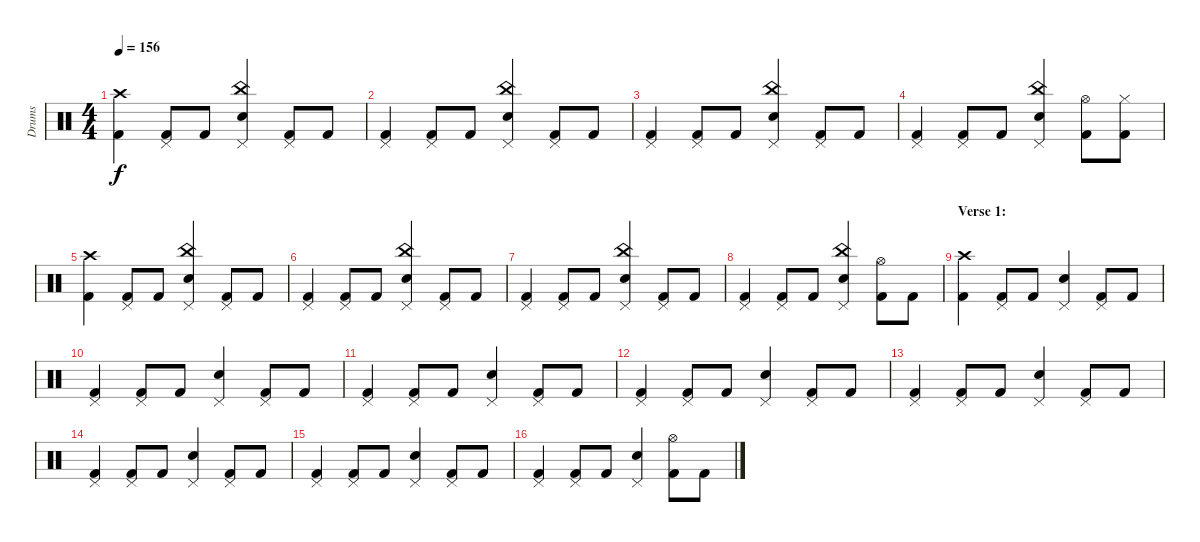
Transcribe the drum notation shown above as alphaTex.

\track ("Drums" "Drums") {instrument percussion}
\staff {score}
\articulation defaults
\ts (4 4)
\tempo 156
\clef neutral
\ks c
("Crash high (hit)" "Kick (hit) 2").4{dy f} ("Pedal Hi-Hat (hit)" "Kick (hit) 2").8 "Kick (hit) 2".8 ("Pedal Hi-Hat (hit)" "China (hit)" "Electric Snare (hit)").4 ("Pedal Hi-Hat (hit)" "Kick (hit) 2").8 "Kick (hit) 2".8 |
("Pedal Hi-Hat (hit)" "Kick (hit) 2").4 ("Pedal Hi-Hat (hit)" "Kick (hit) 2").8 "Kick (hit) 2".8 ("Pedal Hi-Hat (hit)" "China (hit)" "Electric Snare (hit)").4 ("Pedal Hi-Hat (hit)" "Kick (hit) 2").8 "Kick (hit) 2".8 |
("Pedal Hi-Hat (hit)" "Kick (hit) 2").4 ("Pedal Hi-Hat (hit)" "Kick (hit) 2").8 "Kick (hit) 2".8 ("Pedal Hi-Hat (hit)" "China (hit)" "Electric Snare (hit)").4 ("Pedal Hi-Hat (hit)" "Kick (hit) 2").8 "Kick (hit) 2".8 |
("Pedal Hi-Hat (hit)" "Kick (hit) 2").4 ("Pedal Hi-Hat (hit)" "Kick (hit) 2").8 "Kick (hit) 2".8 ("Pedal Hi-Hat (hit)" "China (hit)" "Electric Snare (hit)").4 ("Hi-Hat (open)" "Kick (hit) 2").8 ("Hi-Hat (closed)" "Kick (hit) 2").8 |
("Crash high (hit)" "Kick (hit) 2").4 ("Pedal Hi-Hat (hit)" "Kick (hit) 2").8 "Kick (hit) 2".8 ("Pedal Hi-Hat (hit)" "China (hit)" "Electric Snare (hit)").4 ("Pedal Hi-Hat (hit)" "Kick (hit) 2").8 "Kick (hit) 2".8 |
("Pedal Hi-Hat (hit)" "Kick (hit) 2").4 ("Pedal Hi-Hat (hit)" "Kick (hit) 2").8 "Kick (hit) 2".8 ("Pedal Hi-Hat (hit)" "China (hit)" "Electric Snare (hit)").4 ("Pedal Hi-Hat (hit)" "Kick (hit) 2").8 "Kick (hit) 2".8 |
("Pedal Hi-Hat (hit)" "Kick (hit) 2").4 ("Pedal Hi-Hat (hit)" "Kick (hit) 2").8 "Kick (hit) 2".8 ("Pedal Hi-Hat (hit)" "China (hit)" "Electric Snare (hit)").4 ("Pedal Hi-Hat (hit)" "Kick (hit) 2").8 "Kick (hit) 2".8 |
("Pedal Hi-Hat (hit)" "Kick (hit) 2").4 ("Pedal Hi-Hat (hit)" "Kick (hit) 2").8 "Kick (hit) 2".8 ("Pedal Hi-Hat (hit)" "China (hit)" "Electric Snare (hit)").4 ("Hi-Hat (open)" "Kick (hit) 2").8 "Kick (hit) 2".8 |
\section ("" "Verse 1:")
("Crash high (hit)" "Kick (hit) 2").4 ("Pedal Hi-Hat (hit)" "Kick (hit) 2").8 "Kick (hit) 2".8 ("Pedal Hi-Hat (hit)" "Electric Snare (hit)").4 ("Pedal Hi-Hat (hit)" "Kick (hit) 2").8 "Kick (hit) 2".8 |
("Pedal Hi-Hat (hit)" "Kick (hit) 2").4 ("Pedal Hi-Hat (hit)" "Kick (hit) 2").8 "Kick (hit) 2".8 ("Pedal Hi-Hat (hit)" "Electric Snare (hit)").4 ("Pedal Hi-Hat (hit)" "Kick (hit) 2").8 "Kick (hit) 2".8 |
("Pedal Hi-Hat (hit)" "Kick (hit) 2").4 ("Pedal Hi-Hat (hit)" "Kick (hit) 2").8 "Kick (hit) 2".8 ("Pedal Hi-Hat (hit)" "Electric Snare (hit)").4 ("Pedal Hi-Hat (hit)" "Kick (hit) 2").8 "Kick (hit) 2".8 |
("Pedal Hi-Hat (hit)" "Kick (hit) 2").4 ("Pedal Hi-Hat (hit)" "Kick (hit) 2").8 "Kick (hit) 2".8 ("Pedal Hi-Hat (hit)" "Electric Snare (hit)").4 ("Pedal Hi-Hat (hit)" "Kick (hit) 2").8 "Kick (hit) 2".8 |
("Pedal Hi-Hat (hit)" "Kick (hit) 2").4 ("Pedal Hi-Hat (hit)" "Kick (hit) 2").8 "Kick (hit) 2".8 ("Pedal Hi-Hat (hit)" "Electric Snare (hit)").4 ("Pedal Hi-Hat (hit)" "Kick (hit) 2").8 "Kick (hit) 2".8 |
("Pedal Hi-Hat (hit)" "Kick (hit) 2").4 ("Pedal Hi-Hat (hit)" "Kick (hit) 2").8 "Kick (hit) 2".8 ("Pedal Hi-Hat (hit)" "Electric Snare (hit)").4 ("Pedal Hi-Hat (hit)" "Kick (hit) 2").8 "Kick (hit) 2".8 |
("Pedal Hi-Hat (hit)" "Kick (hit) 2").4 ("Pedal Hi-Hat (hit)" "Kick (hit) 2").8 "Kick (hit) 2".8 ("Pedal Hi-Hat (hit)" "Electric Snare (hit)").4 ("Pedal Hi-Hat (hit)" "Kick (hit) 2").8 "Kick (hit) 2".8 |
("Pedal Hi-Hat (hit)" "Kick (hit) 2").4 ("Pedal Hi-Hat (hit)" "Kick (hit) 2").8 "Kick (hit) 2".8 ("Pedal Hi-Hat (hit)" "Electric Snare (hit)").4 ("Hi-Hat (open)" "Kick (hit) 2").8 "Kick (hit) 2".8
